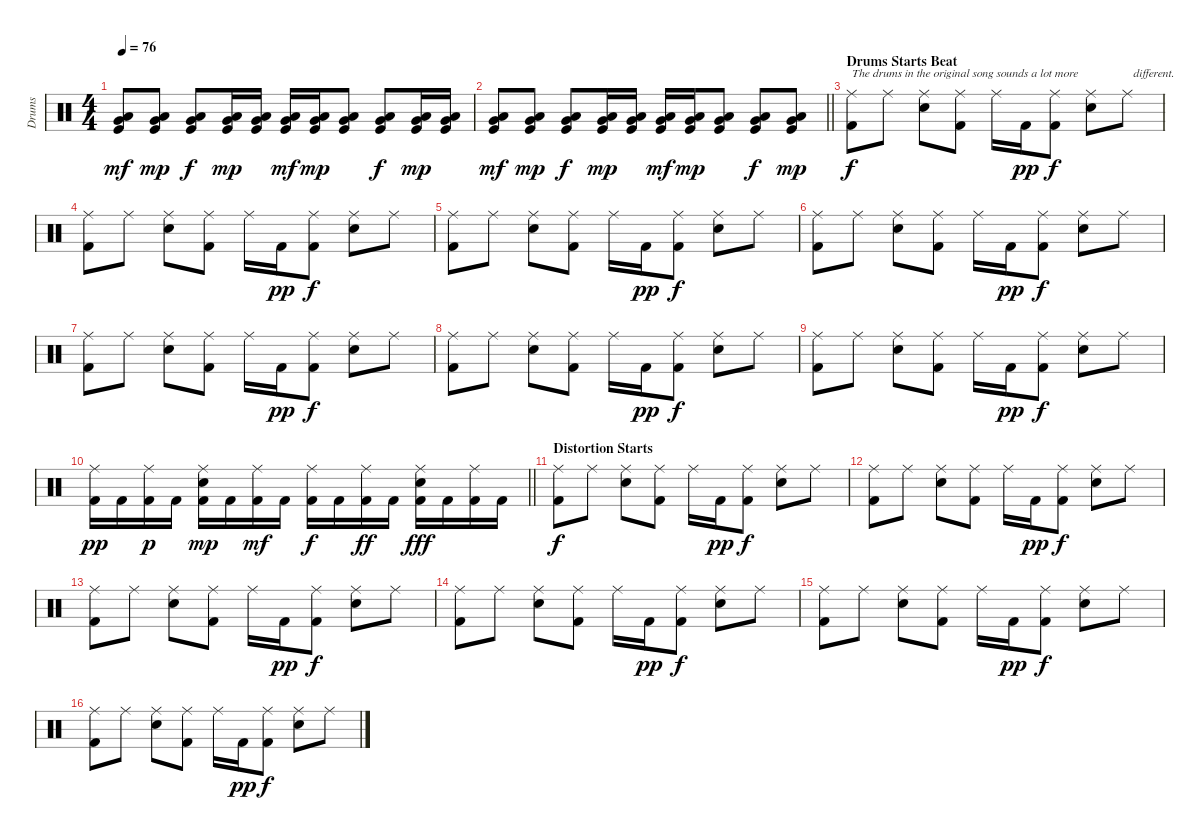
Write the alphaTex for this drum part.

\track ("Drums" "Drums") {instrument percussion}
\staff {score}
\articulation defaults
\ts (4 4)
\tempo 76
\clef neutral
\ks c
("Kick (hit)" "Low Floor Tom (hit)" "Very Low Tom (hit)").8{dy mf} ("Kick (hit)" "Low Floor Tom (hit)" "Very Low Tom (hit)").8{dy mp} ("Kick (hit)" "Very Low Tom (hit)" "Low Tom (hit)").8{dy f} ("Kick (hit)" "Low Floor Tom (hit)" "Very Low Tom (hit)").16{dy mp} ("Kick (hit)" "Very Low Tom (hit)" "Low Tom (hit)").16 ("Kick (hit)" "Low Floor Tom (hit)" "Very Low Tom (hit)").16{dy mf} ("Kick (hit)" "Very Low Tom (hit)" "Low Tom (hit)").16{dy mp} ("Kick (hit)" "Low Floor Tom (hit)" "Very Low Tom (hit)").8 ("Kick (hit)" "Very Low Tom (hit)" "Low Tom (hit)").8{dy f} ("Kick (hit)" "Low Floor Tom (hit)" "Very Low Tom (hit)").16{dy mp} ("Kick (hit)" "Very Low Tom (hit)" "Low Tom (hit)").16 |
\barLineRight lightlight
("Kick (hit)" "Low Floor Tom (hit)" "Very Low Tom (hit)").8{dy mf} ("Kick (hit)" "Low Floor Tom (hit)" "Very Low Tom (hit)").8{dy mp} ("Kick (hit)" "Very Low Tom (hit)" "Low Tom (hit)").8{dy f} ("Kick (hit)" "Low Floor Tom (hit)" "Very Low Tom (hit)").16{dy mp} ("Kick (hit)" "Very Low Tom (hit)" "Low Tom (hit)").16 ("Kick (hit)" "Low Floor Tom (hit)" "Very Low Tom (hit)").16{dy mf} ("Kick (hit)" "Very Low Tom (hit)" "Low Tom (hit)").16{dy mp} ("Kick (hit)" "Low Floor Tom (hit)" "Very Low Tom (hit)").8 ("Kick (hit)" "Very Low Tom (hit)" "Low Tom (hit)").8{dy f} ("Kick (hit)" "Low Floor Tom (hit)" "Very Low Tom (hit)").8{dy mp} |
\section ("" "Drums Starts Beat")
("Ride (middle)" "Kick (hit) 2").8{txt "The drums in the original song sounds a lot more" dy f} "Ride (middle)".8 ("Electric Snare (hit)" "Ride (middle)").8 ("Ride (middle)" "Kick (hit) 2").8 "Ride (middle)".16 "Kick (hit) 2".16{dy pp} ("Ride (middle)" "Kick (hit) 2").8{dy f} ("Electric Snare (hit)" "Ride (middle)").8 "Ride (middle)".8{txt "  different."} |
("Ride (middle)" "Kick (hit) 2").8 "Ride (middle)".8 ("Electric Snare (hit)" "Ride (middle)").8 ("Ride (middle)" "Kick (hit) 2").8 "Ride (middle)".16 "Kick (hit) 2".16{dy pp} ("Ride (middle)" "Kick (hit) 2").8{dy f} ("Electric Snare (hit)" "Ride (middle)").8 "Ride (middle)".8 |
("Ride (middle)" "Kick (hit) 2").8 "Ride (middle)".8 ("Electric Snare (hit)" "Ride (middle)").8 ("Ride (middle)" "Kick (hit) 2").8 "Ride (middle)".16 "Kick (hit) 2".16{dy pp} ("Ride (middle)" "Kick (hit) 2").8{dy f} ("Electric Snare (hit)" "Ride (middle)").8 "Ride (middle)".8 |
("Ride (middle)" "Kick (hit) 2").8 "Ride (middle)".8 ("Electric Snare (hit)" "Ride (middle)").8 ("Ride (middle)" "Kick (hit) 2").8 "Ride (middle)".16 "Kick (hit) 2".16{dy pp} ("Ride (middle)" "Kick (hit) 2").8{dy f} ("Electric Snare (hit)" "Ride (middle)").8 "Ride (middle)".8 |
("Ride (middle)" "Kick (hit) 2").8 "Ride (middle)".8 ("Electric Snare (hit)" "Ride (middle)").8 ("Ride (middle)" "Kick (hit) 2").8 "Ride (middle)".16 "Kick (hit) 2".16{dy pp} ("Ride (middle)" "Kick (hit) 2").8{dy f} ("Electric Snare (hit)" "Ride (middle)").8 "Ride (middle)".8 |
("Ride (middle)" "Kick (hit) 2").8 "Ride (middle)".8 ("Electric Snare (hit)" "Ride (middle)").8 ("Ride (middle)" "Kick (hit) 2").8 "Ride (middle)".16 "Kick (hit) 2".16{dy pp} ("Ride (middle)" "Kick (hit) 2").8{dy f} ("Electric Snare (hit)" "Ride (middle)").8 "Ride (middle)".8 |
("Ride (middle)" "Kick (hit) 2").8 "Ride (middle)".8 ("Electric Snare (hit)" "Ride (middle)").8 ("Ride (middle)" "Kick (hit) 2").8 "Ride (middle)".16 "Kick (hit) 2".16{dy pp} ("Ride (middle)" "Kick (hit) 2").8{dy f} ("Electric Snare (hit)" "Ride (middle)").8 "Ride (middle)".8 |
\barLineRight lightlight
("Ride (middle)" "Kick (hit) 2").16{dy pp} "Kick (hit) 2".16 ("Ride (middle)" "Kick (hit) 2").16{dy p} "Kick (hit) 2".16 ("Electric Snare (hit)" "Ride (middle)" "Kick (hit) 2").16{dy mp} "Kick (hit) 2".16 ("Ride (middle)" "Kick (hit) 2").16{dy mf} "Kick (hit) 2".16 ("Ride (middle)" "Kick (hit) 2").16{dy f} "Kick (hit) 2".16 ("Ride (middle)" "Kick (hit) 2").16{dy ff} "Kick (hit) 2".16 ("Electric Snare (hit)" "Ride (middle)" "Kick (hit) 2").16{dy fff} "Kick (hit) 2".16 ("Ride (middle)" "Kick (hit) 2").16 "Kick (hit) 2".16 |
\section ("" "Distortion Starts")
("Ride (middle)" "Kick (hit) 2").8{dy f} "Ride (middle)".8 ("Electric Snare (hit)" "Ride (middle)").8 ("Ride (middle)" "Kick (hit) 2").8 "Ride (middle)".16 "Kick (hit) 2".16{dy pp} ("Ride (middle)" "Kick (hit) 2").8{dy f} ("Electric Snare (hit)" "Ride (middle)").8 "Ride (middle)".8 |
("Ride (middle)" "Kick (hit) 2").8 "Ride (middle)".8 ("Electric Snare (hit)" "Ride (middle)").8 ("Ride (middle)" "Kick (hit) 2").8 "Ride (middle)".16 "Kick (hit) 2".16{dy pp} ("Ride (middle)" "Kick (hit) 2").8{dy f} ("Electric Snare (hit)" "Ride (middle)").8 "Ride (middle)".8 |
("Ride (middle)" "Kick (hit) 2").8 "Ride (middle)".8 ("Electric Snare (hit)" "Ride (middle)").8 ("Ride (middle)" "Kick (hit) 2").8 "Ride (middle)".16 "Kick (hit) 2".16{dy pp} ("Ride (middle)" "Kick (hit) 2").8{dy f} ("Electric Snare (hit)" "Ride (middle)").8 "Ride (middle)".8 |
("Ride (middle)" "Kick (hit) 2").8 "Ride (middle)".8 ("Electric Snare (hit)" "Ride (middle)").8 ("Ride (middle)" "Kick (hit) 2").8 "Ride (middle)".16 "Kick (hit) 2".16{dy pp} ("Ride (middle)" "Kick (hit) 2").8{dy f} ("Electric Snare (hit)" "Ride (middle)").8 "Ride (middle)".8 |
("Ride (middle)" "Kick (hit) 2").8 "Ride (middle)".8 ("Electric Snare (hit)" "Ride (middle)").8 ("Ride (middle)" "Kick (hit) 2").8 "Ride (middle)".16 "Kick (hit) 2".16{dy pp} ("Ride (middle)" "Kick (hit) 2").8{dy f} ("Electric Snare (hit)" "Ride (middle)").8 "Ride (middle)".8 |
("Ride (middle)" "Kick (hit) 2").8 "Ride (middle)".8 ("Electric Snare (hit)" "Ride (middle)").8 ("Ride (middle)" "Kick (hit) 2").8 "Ride (middle)".16 "Kick (hit) 2".16{dy pp} ("Ride (middle)" "Kick (hit) 2").8{dy f} ("Electric Snare (hit)" "Ride (middle)").8 "Ride (middle)".8
